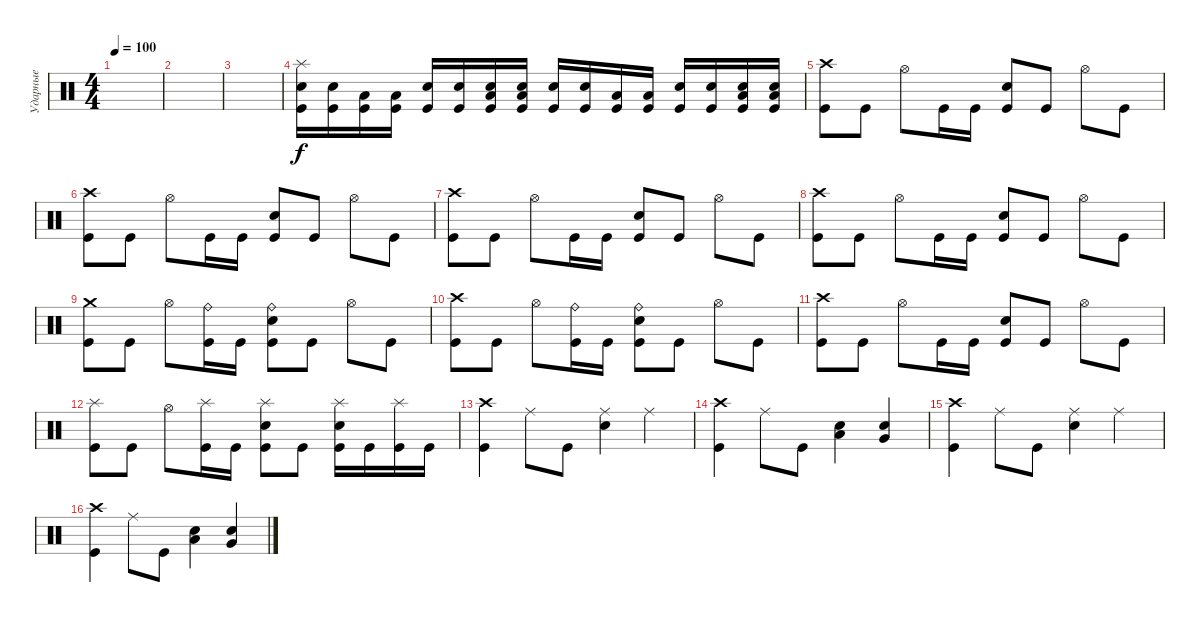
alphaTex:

\track ("Ударные" "Ударные") {instrument percussion}
\staff {score}
\articulation defaults
\ts (4 4)
\tempo 100
\clef neutral
\ks c
|
|
|
("Splash (hit)" "Electric Snare (hit)" "Kick (hit)").16 ("Electric Snare (hit)" "Kick (hit)").16 ("Low Floor Tom (hit)" "Kick (hit)").16 ("Low Floor Tom (hit)" "Kick (hit)").16 ("Electric Snare (hit)" "Kick (hit)").16 ("Electric Snare (hit)" "Kick (hit)").16 ("Electric Snare (hit)" "Low Floor Tom (hit)" "Kick (hit)").16 ("Electric Snare (hit)" "Low Floor Tom (hit)" "Kick (hit)").16 ("Electric Snare (hit)" "Kick (hit)").16 ("Electric Snare (hit)" "Kick (hit)").16 ("Low Floor Tom (hit)" "Kick (hit)").16 ("Low Floor Tom (hit)" "Kick (hit)").16 ("Electric Snare (hit)" "Kick (hit)").16 ("Electric Snare (hit)" "Kick (hit)").16 ("Electric Snare (hit)" "Low Floor Tom (hit)" "Kick (hit)").16 ("Electric Snare (hit)" "Low Floor Tom (hit)" "Kick (hit)").16 |
("Crash high (hit)" "Kick (hit)").8 "Kick (hit)".8 "Hi-Hat (open)".8 "Kick (hit)".16 "Kick (hit)".16 ("Electric Snare (hit)" "Kick (hit)").8 "Kick (hit)".8 "Hi-Hat (open)".8 "Kick (hit)".8 |
("Crash high (hit)" "Kick (hit)").8 "Kick (hit)".8 "Hi-Hat (open)".8 "Kick (hit)".16 "Kick (hit)".16 ("Electric Snare (hit)" "Kick (hit)").8 "Kick (hit)".8 "Hi-Hat (open)".8 "Kick (hit)".8 |
("Crash high (hit)" "Kick (hit)").8 "Kick (hit)".8 "Hi-Hat (open)".8 "Kick (hit)".16 "Kick (hit)".16 ("Electric Snare (hit)" "Kick (hit)").8 "Kick (hit)".8 "Hi-Hat (open)".8 "Kick (hit)".8 |
("Crash high (hit)" "Kick (hit)").8 "Kick (hit)".8 "Hi-Hat (open)".8 "Kick (hit)".16 "Kick (hit)".16 ("Electric Snare (hit)" "Kick (hit)").8 "Kick (hit)".8 "Hi-Hat (open)".8 "Kick (hit)".8 |
("Crash medium (hit)" "Kick (hit)").8 "Kick (hit)".8 "Hi-Hat (open)".8 ("Ride (bell)" "Kick (hit)").16 "Kick (hit)".16 ("Ride (bell)" "Electric Snare (hit)" "Kick (hit)").8 "Kick (hit)".8 "Hi-Hat (open)".8 "Kick (hit)".8 |
("Crash high (hit)" "Kick (hit)").8 "Kick (hit)".8 "Hi-Hat (open)".8 ("Ride (bell)" "Kick (hit)").16 "Kick (hit)".16 ("Ride (bell)" "Electric Snare (hit)" "Kick (hit)").8 "Kick (hit)".8 "Hi-Hat (open)".8 "Kick (hit)".8 |
("Crash high (hit)" "Kick (hit)").8 "Kick (hit)".8 "Hi-Hat (open)".8 "Kick (hit)".16 "Kick (hit)".16 ("Electric Snare (hit)" "Kick (hit)").8 "Kick (hit)".8 "Hi-Hat (open)".8 "Kick (hit)".8 |
("Splash (hit)" "Kick (hit)").8 "Kick (hit)".8 "Hi-Hat (open)".8 ("Splash (hit)" "Kick (hit)").16 "Kick (hit)".16 ("Splash (hit)" "Electric Snare (hit)" "Kick (hit)").8 "Kick (hit)".8 ("Splash (hit)" "Electric Snare (hit)" "Kick (hit)").16 "Kick (hit)".16 ("Splash (hit)" "Kick (hit)").16 "Kick (hit)".16 |
("Crash high (hit)" "Kick (hit)").4 "Ride (middle)".8 "Kick (hit)".8 ("Ride (middle)" "Electric Snare (hit)").4 "Ride (middle)".4 |
("Crash high (hit)" "Kick (hit)").4 "Ride (middle)".8 "Kick (hit)".8 ("Low Tom (hit)" "Electric Snare (hit)").4 ("Very Low Tom (hit)" "Electric Snare (hit)").4 |
("Crash high (hit)" "Kick (hit)").4 "Ride (middle)".8 "Kick (hit)".8 ("Ride (middle)" "Electric Snare (hit)").4 "Ride (middle)".4 |
("Crash high (hit)" "Kick (hit)").4 "Ride (middle)".8 "Kick (hit)".8 ("Low Tom (hit)" "Electric Snare (hit)").4 ("Very Low Tom (hit)" "Electric Snare (hit)").4
